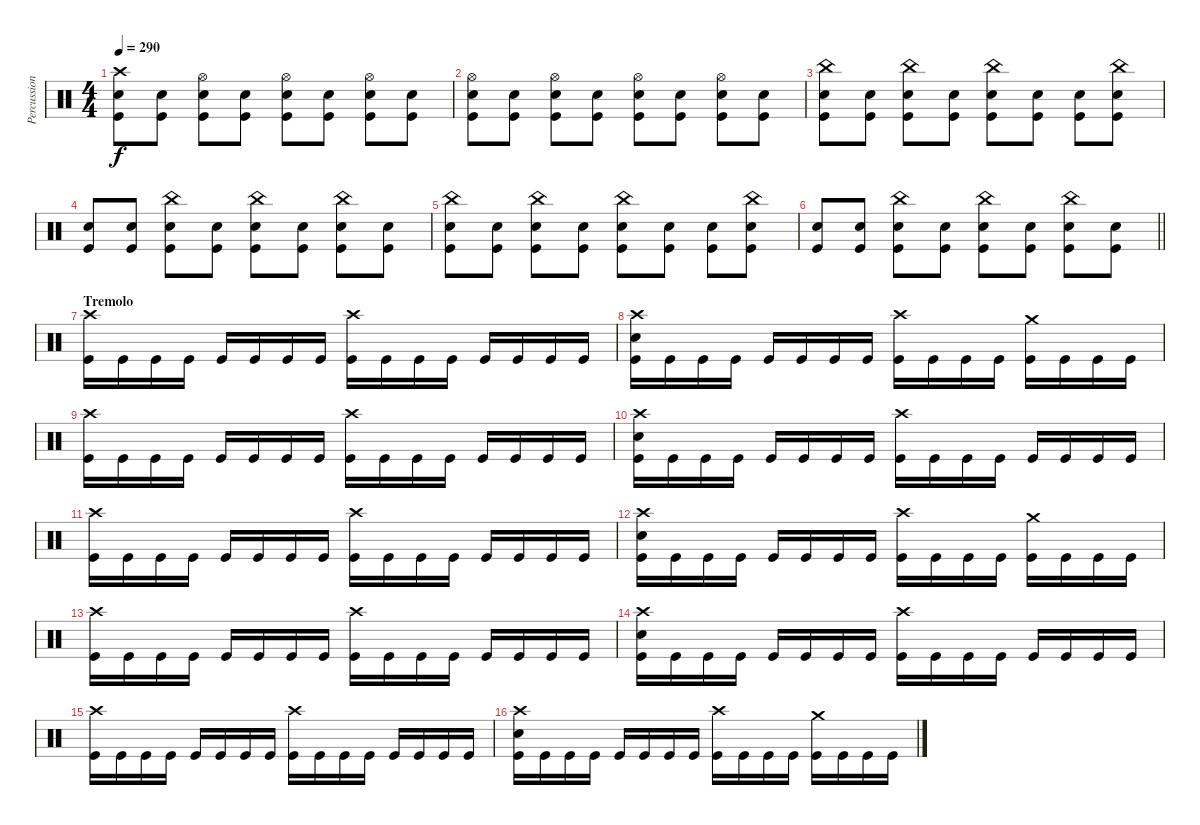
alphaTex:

\track ("Percussion" "Percussion") {instrument percussion}
\staff {score}
\articulation defaults
\ts (4 4)
\tempo 290
\clef neutral
\ks c
("Crash high (hit)" "Kick (hit)" "Electric Snare (hit)").8{dy f} ("Kick (hit)" "Electric Snare (hit)").8 ("Electric Snare (hit)" "Hi-Hat (open)" "Kick (hit)").8 ("Electric Snare (hit)" "Kick (hit)").8 ("Electric Snare (hit)" "Hi-Hat (open)" "Kick (hit)").8 ("Electric Snare (hit)" "Kick (hit)").8 ("Electric Snare (hit)" "Hi-Hat (open)" "Kick (hit)").8 ("Electric Snare (hit)" "Kick (hit)").8 |
("Electric Snare (hit)" "Hi-Hat (open)" "Kick (hit)").8 ("Electric Snare (hit)" "Kick (hit)").8 ("Electric Snare (hit)" "Hi-Hat (open)" "Kick (hit)").8 ("Electric Snare (hit)" "Kick (hit)").8 ("Electric Snare (hit)" "Hi-Hat (open)" "Kick (hit)").8 ("Electric Snare (hit)" "Kick (hit)").8 ("Electric Snare (hit)" "Hi-Hat (open)" "Kick (hit)").8 ("Electric Snare (hit)" "Kick (hit)").8 |
("China (hit)" "Electric Snare (hit)" "Kick (hit)").8 ("Electric Snare (hit)" "Kick (hit)").8 ("Electric Snare (hit)" "China (hit)" "Kick (hit)").8 ("Electric Snare (hit)" "Kick (hit)").8 ("Electric Snare (hit)" "China (hit)" "Kick (hit)").8 ("Electric Snare (hit)" "Kick (hit)").8 ("Electric Snare (hit)" "Kick (hit)").8 ("Electric Snare (hit)" "China (hit)" "Kick (hit)").8 |
("Electric Snare (hit)" "Kick (hit)").8 ("Electric Snare (hit)" "Kick (hit)").8 ("Electric Snare (hit)" "China (hit)" "Kick (hit)").8 ("Electric Snare (hit)" "Kick (hit)").8 ("Electric Snare (hit)" "China (hit)" "Kick (hit)").8 ("Electric Snare (hit)" "Kick (hit)").8 ("Electric Snare (hit)" "China (hit)" "Kick (hit)").8 ("Electric Snare (hit)" "Kick (hit)").8 |
("China (hit)" "Electric Snare (hit)" "Kick (hit)").8 ("Electric Snare (hit)" "Kick (hit)").8 ("Electric Snare (hit)" "China (hit)" "Kick (hit)").8 ("Electric Snare (hit)" "Kick (hit)").8 ("Electric Snare (hit)" "China (hit)" "Kick (hit)").8 ("Electric Snare (hit)" "Kick (hit)").8 ("Electric Snare (hit)" "Kick (hit)").8 ("Electric Snare (hit)" "China (hit)" "Kick (hit)").8 |
\barLineRight lightlight
("Electric Snare (hit)" "Kick (hit)").8 ("Electric Snare (hit)" "Kick (hit)").8 ("Electric Snare (hit)" "China (hit)" "Kick (hit)").8 ("Electric Snare (hit)" "Kick (hit)").8 ("Electric Snare (hit)" "China (hit)" "Kick (hit)").8 ("Electric Snare (hit)" "Kick (hit)").8 ("Electric Snare (hit)" "China (hit)" "Kick (hit)").8 ("Electric Snare (hit)" "Kick (hit)").8 |
\section ("" "Tremolo")
("Crash high (hit)" "Kick (hit)").16 "Kick (hit)".16 "Kick (hit)".16 "Kick (hit)".16 "Kick (hit)".16 "Kick (hit)".16 "Kick (hit)".16 "Kick (hit)".16 ("Crash high (hit)" "Kick (hit)").16 "Kick (hit)".16 "Kick (hit)".16 "Kick (hit)".16 "Kick (hit)".16 "Kick (hit)".16 "Kick (hit)".16 "Kick (hit)".16 |
("Electric Snare (hit)" "Crash high (hit)" "Kick (hit)").16 "Kick (hit)".16 "Kick (hit)".16 "Kick (hit)".16 "Kick (hit)".16 "Kick (hit)".16 "Kick (hit)".16 "Kick (hit)".16 ("Crash high (hit)" "Kick (hit)").16 "Kick (hit)".16 "Kick (hit)".16 "Kick (hit)".16 ("Crash medium (hit)" "Kick (hit)").16 "Kick (hit)".16 "Kick (hit)".16 "Kick (hit)".16 |
("Crash high (hit)" "Kick (hit)").16 "Kick (hit)".16 "Kick (hit)".16 "Kick (hit)".16 "Kick (hit)".16 "Kick (hit)".16 "Kick (hit)".16 "Kick (hit)".16 ("Crash high (hit)" "Kick (hit)").16 "Kick (hit)".16 "Kick (hit)".16 "Kick (hit)".16 "Kick (hit)".16 "Kick (hit)".16 "Kick (hit)".16 "Kick (hit)".16 |
("Electric Snare (hit)" "Crash high (hit)" "Kick (hit)").16 "Kick (hit)".16 "Kick (hit)".16 "Kick (hit)".16 "Kick (hit)".16 "Kick (hit)".16 "Kick (hit)".16 "Kick (hit)".16 ("Crash high (hit)" "Kick (hit)").16 "Kick (hit)".16 "Kick (hit)".16 "Kick (hit)".16 "Kick (hit)".16 "Kick (hit)".16 "Kick (hit)".16 "Kick (hit)".16 |
("Crash high (hit)" "Kick (hit)").16 "Kick (hit)".16 "Kick (hit)".16 "Kick (hit)".16 "Kick (hit)".16 "Kick (hit)".16 "Kick (hit)".16 "Kick (hit)".16 ("Crash high (hit)" "Kick (hit)").16 "Kick (hit)".16 "Kick (hit)".16 "Kick (hit)".16 "Kick (hit)".16 "Kick (hit)".16 "Kick (hit)".16 "Kick (hit)".16 |
("Electric Snare (hit)" "Crash high (hit)" "Kick (hit)").16 "Kick (hit)".16 "Kick (hit)".16 "Kick (hit)".16 "Kick (hit)".16 "Kick (hit)".16 "Kick (hit)".16 "Kick (hit)".16 ("Crash high (hit)" "Kick (hit)").16 "Kick (hit)".16 "Kick (hit)".16 "Kick (hit)".16 ("Crash medium (hit)" "Kick (hit)").16 "Kick (hit)".16 "Kick (hit)".16 "Kick (hit)".16 |
("Crash high (hit)" "Kick (hit)").16 "Kick (hit)".16 "Kick (hit)".16 "Kick (hit)".16 "Kick (hit)".16 "Kick (hit)".16 "Kick (hit)".16 "Kick (hit)".16 ("Crash high (hit)" "Kick (hit)").16 "Kick (hit)".16 "Kick (hit)".16 "Kick (hit)".16 "Kick (hit)".16 "Kick (hit)".16 "Kick (hit)".16 "Kick (hit)".16 |
("Electric Snare (hit)" "Crash high (hit)" "Kick (hit)").16 "Kick (hit)".16 "Kick (hit)".16 "Kick (hit)".16 "Kick (hit)".16 "Kick (hit)".16 "Kick (hit)".16 "Kick (hit)".16 ("Crash high (hit)" "Kick (hit)").16 "Kick (hit)".16 "Kick (hit)".16 "Kick (hit)".16 "Kick (hit)".16 "Kick (hit)".16 "Kick (hit)".16 "Kick (hit)".16 |
("Crash high (hit)" "Kick (hit)").16 "Kick (hit)".16 "Kick (hit)".16 "Kick (hit)".16 "Kick (hit)".16 "Kick (hit)".16 "Kick (hit)".16 "Kick (hit)".16 ("Crash high (hit)" "Kick (hit)").16 "Kick (hit)".16 "Kick (hit)".16 "Kick (hit)".16 "Kick (hit)".16 "Kick (hit)".16 "Kick (hit)".16 "Kick (hit)".16 |
("Electric Snare (hit)" "Crash high (hit)" "Kick (hit)").16 "Kick (hit)".16 "Kick (hit)".16 "Kick (hit)".16 "Kick (hit)".16 "Kick (hit)".16 "Kick (hit)".16 "Kick (hit)".16 ("Crash high (hit)" "Kick (hit)").16 "Kick (hit)".16 "Kick (hit)".16 "Kick (hit)".16 ("Crash medium (hit)" "Kick (hit)").16 "Kick (hit)".16 "Kick (hit)".16 "Kick (hit)".16
